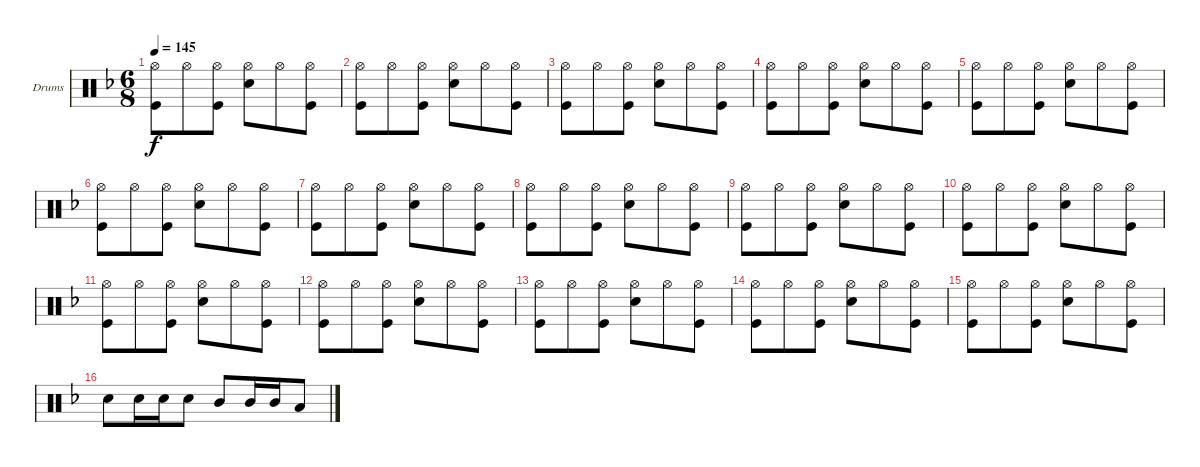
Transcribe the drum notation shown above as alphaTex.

\bracketExtendMode groupsimilarinstruments
\firstSystemTrackNameOrientation horizontal
\otherSystemsTrackNameOrientation horizontal
\track ("Drumkit" "Drums") {instrument percussion}
\staff {score}
\articulation defaults
\ts (6 8)
\tempo 145
\clef neutral
\ks f
("Hi-Hat (open)" "Kick (hit)").8{dy f} "Hi-Hat (open)".8 ("Hi-Hat (open)" "Kick (hit)").8 ("Hi-Hat (open)" "Snare (hit) 2").8 "Hi-Hat (open)".8 ("Hi-Hat (open)" "Kick (hit)").8 |
("Hi-Hat (open)" "Kick (hit)").8 "Hi-Hat (open)".8 ("Hi-Hat (open)" "Kick (hit)").8 ("Hi-Hat (open)" "Snare (hit) 2").8 "Hi-Hat (open)".8 ("Hi-Hat (open)" "Kick (hit)").8 |
("Hi-Hat (open)" "Kick (hit)").8 "Hi-Hat (open)".8 ("Hi-Hat (open)" "Kick (hit)").8 ("Hi-Hat (open)" "Snare (hit) 2").8 "Hi-Hat (open)".8 ("Hi-Hat (open)" "Kick (hit)").8 |
("Hi-Hat (open)" "Kick (hit)").8 "Hi-Hat (open)".8 ("Hi-Hat (open)" "Kick (hit)").8 ("Hi-Hat (open)" "Snare (hit) 2").8 "Hi-Hat (open)".8 ("Hi-Hat (open)" "Kick (hit)").8 |
("Hi-Hat (open)" "Kick (hit)").8 "Hi-Hat (open)".8 ("Hi-Hat (open)" "Kick (hit)").8 ("Hi-Hat (open)" "Snare (hit) 2").8 "Hi-Hat (open)".8 ("Hi-Hat (open)" "Kick (hit)").8 |
("Hi-Hat (open)" "Kick (hit)").8 "Hi-Hat (open)".8 ("Hi-Hat (open)" "Kick (hit)").8 ("Hi-Hat (open)" "Snare (hit) 2").8 "Hi-Hat (open)".8 ("Hi-Hat (open)" "Kick (hit)").8 |
("Hi-Hat (open)" "Kick (hit)").8 "Hi-Hat (open)".8 ("Hi-Hat (open)" "Kick (hit)").8 ("Hi-Hat (open)" "Snare (hit) 2").8 "Hi-Hat (open)".8 ("Hi-Hat (open)" "Kick (hit)").8 |
("Hi-Hat (open)" "Kick (hit)").8 "Hi-Hat (open)".8 ("Hi-Hat (open)" "Kick (hit)").8 ("Hi-Hat (open)" "Snare (hit) 2").8 "Hi-Hat (open)".8 ("Hi-Hat (open)" "Kick (hit)").8 |
("Hi-Hat (open)" "Kick (hit)").8 "Hi-Hat (open)".8 ("Hi-Hat (open)" "Kick (hit)").8 ("Hi-Hat (open)" "Snare (hit) 2").8 "Hi-Hat (open)".8 ("Hi-Hat (open)" "Kick (hit)").8 |
("Hi-Hat (open)" "Kick (hit)").8 "Hi-Hat (open)".8 ("Hi-Hat (open)" "Kick (hit)").8 ("Hi-Hat (open)" "Snare (hit) 2").8 "Hi-Hat (open)".8 ("Hi-Hat (open)" "Kick (hit)").8 |
("Hi-Hat (open)" "Kick (hit)").8 "Hi-Hat (open)".8 ("Hi-Hat (open)" "Kick (hit)").8 ("Hi-Hat (open)" "Snare (hit) 2").8 "Hi-Hat (open)".8 ("Hi-Hat (open)" "Kick (hit)").8 |
("Hi-Hat (open)" "Kick (hit)").8 "Hi-Hat (open)".8 ("Hi-Hat (open)" "Kick (hit)").8 ("Hi-Hat (open)" "Snare (hit) 2").8 "Hi-Hat (open)".8 ("Hi-Hat (open)" "Kick (hit)").8 |
("Hi-Hat (open)" "Kick (hit)").8 "Hi-Hat (open)".8 ("Hi-Hat (open)" "Kick (hit)").8 ("Hi-Hat (open)" "Snare (hit) 2").8 "Hi-Hat (open)".8 ("Hi-Hat (open)" "Kick (hit)").8 |
("Hi-Hat (open)" "Kick (hit)").8 "Hi-Hat (open)".8 ("Hi-Hat (open)" "Kick (hit)").8 ("Hi-Hat (open)" "Snare (hit) 2").8 "Hi-Hat (open)".8 ("Hi-Hat (open)" "Kick (hit)").8 |
("Hi-Hat (open)" "Kick (hit)").8 "Hi-Hat (open)".8 ("Hi-Hat (open)" "Kick (hit)").8 ("Hi-Hat (open)" "Snare (hit) 2").8 "Hi-Hat (open)".8 ("Hi-Hat (open)" "Kick (hit)").8 |
"Snare (hit) 2".8 "Snare (hit) 2".16 "Snare (hit) 2".16 "Snare (hit) 2".8 "Mid Tom (hit)".8 "Mid Tom (hit)".16 "Mid Tom (hit)".16 "Low Tom (hit)".8
